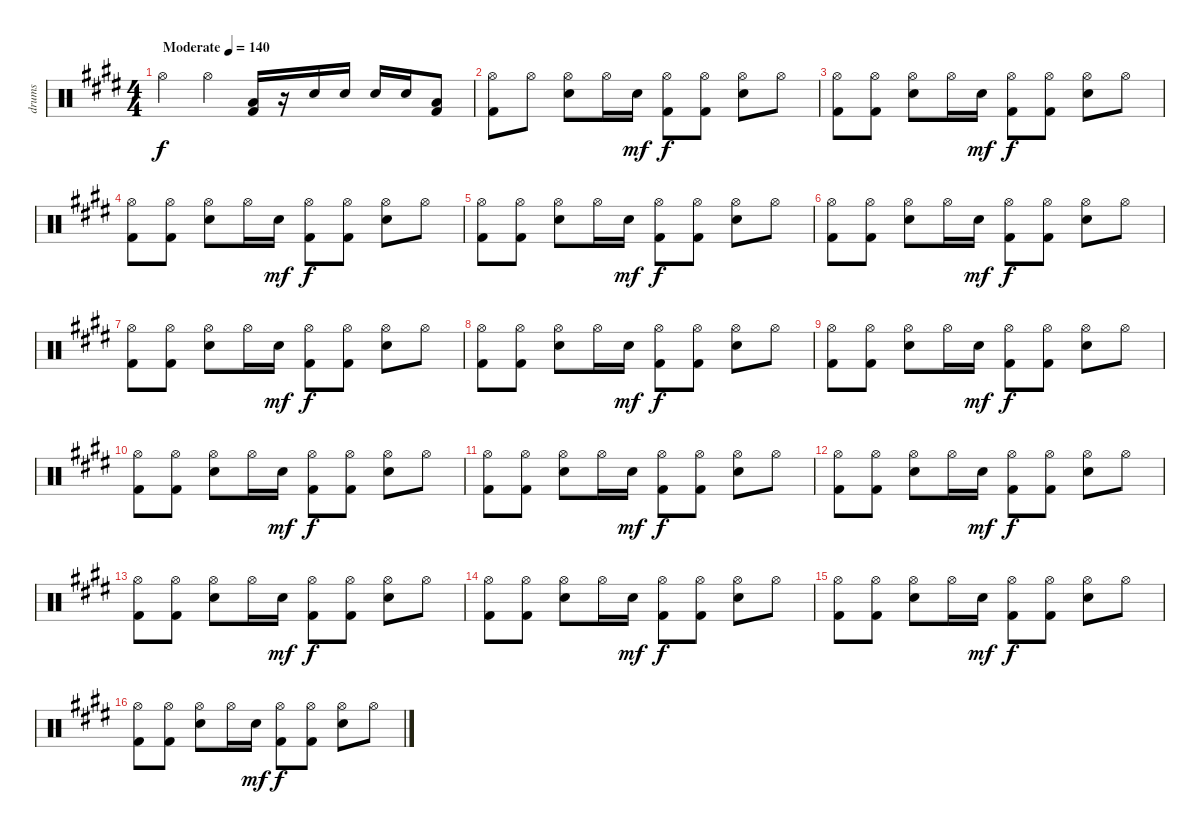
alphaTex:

\track ("drums" "drums") {instrument percussion}
\staff {score}
\articulation defaults
\ts (4 4)
\tempo (140 "Moderate")
\clef neutral
\ks e "Hi-Hat (open)".4{dy f} "Hi-Hat (open)".4
("Low Tom (hit)" "Kick (hit) 2").16 r.16 "Snare (hit) 2".16 "Snare (hit) 2".16 "Snare (hit) 2".16 "Snare (hit) 2".16 ("Low Tom (hit)" "Kick (hit) 2").8 |
("Hi-Hat (open)" "Kick (hit) 2").8 "Hi-Hat (open)".8 ("Hi-Hat (open)" "Snare (hit) 2").8 "Hi-Hat (open)".16 "Snare (hit) 2".16{dy mf} ("Hi-Hat (open)" "Kick (hit) 2").8{dy f} ("Hi-Hat (open)" "Kick (hit) 2").8 ("Hi-Hat (open)" "Snare (hit) 2").8 "Hi-Hat (open)".8 |
("Hi-Hat (open)" "Kick (hit) 2").8 ("Hi-Hat (open)" "Kick (hit) 2").8 ("Hi-Hat (open)" "Snare (hit) 2").8 "Hi-Hat (open)".16 "Snare (hit) 2".16{dy mf} ("Hi-Hat (open)" "Kick (hit) 2").8{dy f} ("Hi-Hat (open)" "Kick (hit) 2").8 ("Hi-Hat (open)" "Snare (hit) 2").8 "Hi-Hat (open)".8 |
("Hi-Hat (open)" "Kick (hit) 2").8 ("Hi-Hat (open)" "Kick (hit) 2").8 ("Hi-Hat (open)" "Snare (hit) 2").8 "Hi-Hat (open)".16 "Snare (hit) 2".16{dy mf} ("Hi-Hat (open)" "Kick (hit) 2").8{dy f} ("Hi-Hat (open)" "Kick (hit) 2").8 ("Hi-Hat (open)" "Snare (hit) 2").8 "Hi-Hat (open)".8 |
("Hi-Hat (open)" "Kick (hit) 2").8 ("Hi-Hat (open)" "Kick (hit) 2").8 ("Hi-Hat (open)" "Snare (hit) 2").8 "Hi-Hat (open)".16 "Snare (hit) 2".16{dy mf} ("Hi-Hat (open)" "Kick (hit) 2").8{dy f} ("Hi-Hat (open)" "Kick (hit) 2").8 ("Hi-Hat (open)" "Snare (hit) 2").8 "Hi-Hat (open)".8 |
("Hi-Hat (open)" "Kick (hit) 2").8 ("Hi-Hat (open)" "Kick (hit) 2").8 ("Hi-Hat (open)" "Snare (hit) 2").8 "Hi-Hat (open)".16 "Snare (hit) 2".16{dy mf} ("Hi-Hat (open)" "Kick (hit) 2").8{dy f} ("Hi-Hat (open)" "Kick (hit) 2").8 ("Hi-Hat (open)" "Snare (hit) 2").8 "Hi-Hat (open)".8 |
("Hi-Hat (open)" "Kick (hit) 2").8 ("Hi-Hat (open)" "Kick (hit) 2").8 ("Hi-Hat (open)" "Snare (hit) 2").8 "Hi-Hat (open)".16 "Snare (hit) 2".16{dy mf} ("Hi-Hat (open)" "Kick (hit) 2").8{dy f} ("Hi-Hat (open)" "Kick (hit) 2").8 ("Hi-Hat (open)" "Snare (hit) 2").8 "Hi-Hat (open)".8 |
("Hi-Hat (open)" "Kick (hit) 2").8 ("Hi-Hat (open)" "Kick (hit) 2").8 ("Hi-Hat (open)" "Snare (hit) 2").8 "Hi-Hat (open)".16 "Snare (hit) 2".16{dy mf} ("Hi-Hat (open)" "Kick (hit) 2").8{dy f} ("Hi-Hat (open)" "Kick (hit) 2").8 ("Hi-Hat (open)" "Snare (hit) 2").8 "Hi-Hat (open)".8 |
("Hi-Hat (open)" "Kick (hit) 2").8 ("Hi-Hat (open)" "Kick (hit) 2").8 ("Hi-Hat (open)" "Snare (hit) 2").8 "Hi-Hat (open)".16 "Snare (hit) 2".16{dy mf} ("Hi-Hat (open)" "Kick (hit) 2").8{dy f} ("Hi-Hat (open)" "Kick (hit) 2").8 ("Hi-Hat (open)" "Snare (hit) 2").8 "Hi-Hat (open)".8 |
("Hi-Hat (open)" "Kick (hit) 2").8 ("Hi-Hat (open)" "Kick (hit) 2").8 ("Hi-Hat (open)" "Snare (hit) 2").8 "Hi-Hat (open)".16 "Snare (hit) 2".16{dy mf} ("Hi-Hat (open)" "Kick (hit) 2").8{dy f} ("Hi-Hat (open)" "Kick (hit) 2").8 ("Hi-Hat (open)" "Snare (hit) 2").8 "Hi-Hat (open)".8 |
("Hi-Hat (open)" "Kick (hit) 2").8 ("Hi-Hat (open)" "Kick (hit) 2").8 ("Hi-Hat (open)" "Snare (hit) 2").8 "Hi-Hat (open)".16 "Snare (hit) 2".16{dy mf} ("Hi-Hat (open)" "Kick (hit) 2").8{dy f} ("Hi-Hat (open)" "Kick (hit) 2").8 ("Hi-Hat (open)" "Snare (hit) 2").8 "Hi-Hat (open)".8 |
("Hi-Hat (open)" "Kick (hit) 2").8 ("Hi-Hat (open)" "Kick (hit) 2").8 ("Hi-Hat (open)" "Snare (hit) 2").8 "Hi-Hat (open)".16 "Snare (hit) 2".16{dy mf} ("Hi-Hat (open)" "Kick (hit) 2").8{dy f} ("Hi-Hat (open)" "Kick (hit) 2").8 ("Hi-Hat (open)" "Snare (hit) 2").8 "Hi-Hat (open)".8 |
("Hi-Hat (open)" "Kick (hit) 2").8 ("Hi-Hat (open)" "Kick (hit) 2").8 ("Hi-Hat (open)" "Snare (hit) 2").8 "Hi-Hat (open)".16 "Snare (hit) 2".16{dy mf} ("Hi-Hat (open)" "Kick (hit) 2").8{dy f} ("Hi-Hat (open)" "Kick (hit) 2").8 ("Hi-Hat (open)" "Snare (hit) 2").8 "Hi-Hat (open)".8 |
("Hi-Hat (open)" "Kick (hit) 2").8 ("Hi-Hat (open)" "Kick (hit) 2").8 ("Hi-Hat (open)" "Snare (hit) 2").8 "Hi-Hat (open)".16 "Snare (hit) 2".16{dy mf} ("Hi-Hat (open)" "Kick (hit) 2").8{dy f} ("Hi-Hat (open)" "Kick (hit) 2").8 ("Hi-Hat (open)" "Snare (hit) 2").8 "Hi-Hat (open)".8 |
("Hi-Hat (open)" "Kick (hit) 2").8 ("Hi-Hat (open)" "Kick (hit) 2").8 ("Hi-Hat (open)" "Snare (hit) 2").8 "Hi-Hat (open)".16 "Snare (hit) 2".16{dy mf} ("Hi-Hat (open)" "Kick (hit) 2").8{dy f} ("Hi-Hat (open)" "Kick (hit) 2").8 ("Hi-Hat (open)" "Snare (hit) 2").8 "Hi-Hat (open)".8 |
("Hi-Hat (open)" "Kick (hit) 2").8 ("Hi-Hat (open)" "Kick (hit) 2").8 ("Hi-Hat (open)" "Snare (hit) 2").8 "Hi-Hat (open)".16 "Snare (hit) 2".16{dy mf} ("Hi-Hat (open)" "Kick (hit) 2").8{dy f} ("Hi-Hat (open)" "Kick (hit) 2").8 ("Hi-Hat (open)" "Snare (hit) 2").8 "Hi-Hat (open)".8
